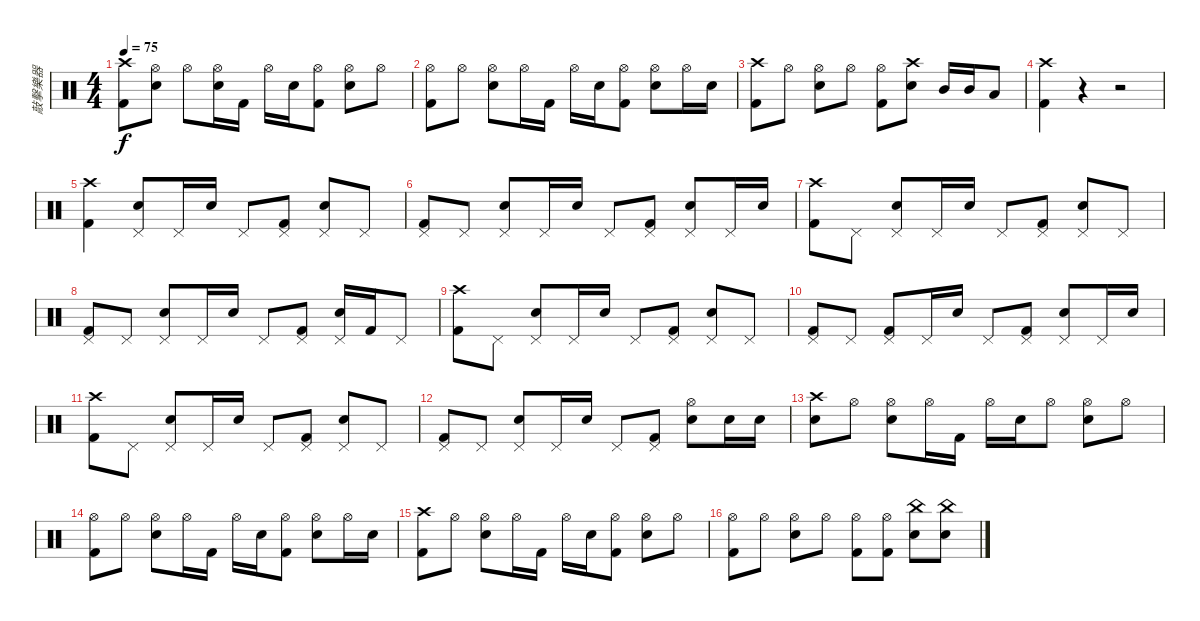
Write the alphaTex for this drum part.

\track ("敲擊樂器" "敲擊樂器") {instrument percussion}
\staff {score}
\articulation defaults
\ts (4 4)
\tempo 75
\clef neutral
\ks c
("Crash high (hit)" "Kick (hit) 2").8{dy f} ("Hi-Hat (open)" "Snare (hit) 2").8 "Hi-Hat (open)".8 ("Snare (hit) 2" "Hi-Hat (open)").16 "Kick (hit) 2".16 "Hi-Hat (open)".16 "Snare (hit) 2".16 ("Kick (hit) 2" "Hi-Hat (open)").8 ("Hi-Hat (open)" "Snare (hit) 2").8 "Hi-Hat (open)".8 |
("Hi-Hat (open)" "Kick (hit) 2").8 "Hi-Hat (open)".8 ("Hi-Hat (open)" "Snare (hit) 2").8 "Hi-Hat (open)".16 "Kick (hit) 2".16 "Hi-Hat (open)".16 "Snare (hit) 2".16 ("Hi-Hat (open)" "Kick (hit) 2").8 ("Hi-Hat (open)" "Snare (hit) 2").8 "Hi-Hat (open)".16 "Snare (hit) 2".16 |
("Crash high (hit)" "Kick (hit) 2").8 "Hi-Hat (open)".8 ("Hi-Hat (open)" "Snare (hit) 2").8 "Hi-Hat (open)".8 ("Hi-Hat (open)" "Kick (hit) 2").8 ("Snare (hit) 2" "Crash high (hit)").8 "Mid Tom (hit)".16 "Mid Tom (hit)".16 "Low Tom (hit)".8 |
("Crash high (hit)" "Kick (hit) 2").4 r.4 r.2 |
("Crash high (hit)" "Kick (hit) 2").4 ("Pedal Hi-Hat (hit)" "Snare (hit) 2").8 "Pedal Hi-Hat (hit)".16 "Snare (hit) 2".16 "Pedal Hi-Hat (hit)".8 ("Pedal Hi-Hat (hit)" "Kick (hit) 2").8 ("Pedal Hi-Hat (hit)" "Snare (hit) 2").8 "Pedal Hi-Hat (hit)".8 |
("Pedal Hi-Hat (hit)" "Kick (hit) 2").8 "Pedal Hi-Hat (hit)".8 ("Pedal Hi-Hat (hit)" "Snare (hit) 2").8 "Pedal Hi-Hat (hit)".16 "Snare (hit) 2".16 "Pedal Hi-Hat (hit)".8 ("Pedal Hi-Hat (hit)" "Kick (hit) 2").8 ("Pedal Hi-Hat (hit)" "Snare (hit) 2").8 "Pedal Hi-Hat (hit)".16 "Snare (hit) 2".16 |
("Crash high (hit)" "Kick (hit) 2").8 "Pedal Hi-Hat (hit)".8 ("Snare (hit) 2" "Pedal Hi-Hat (hit)").8 "Pedal Hi-Hat (hit)".16 "Snare (hit) 2".16 "Pedal Hi-Hat (hit)".8 ("Pedal Hi-Hat (hit)" "Kick (hit) 2").8 ("Snare (hit) 2" "Pedal Hi-Hat (hit)").8 "Pedal Hi-Hat (hit)".8 |
("Pedal Hi-Hat (hit)" "Kick (hit) 2").8 "Pedal Hi-Hat (hit)".8 ("Pedal Hi-Hat (hit)" "Snare (hit) 2").8 "Pedal Hi-Hat (hit)".16 "Snare (hit) 2".16 "Pedal Hi-Hat (hit)".8 ("Pedal Hi-Hat (hit)" "Kick (hit) 2").8 ("Snare (hit) 2" "Pedal Hi-Hat (hit)").16 "Kick (hit) 2".16 "Pedal Hi-Hat (hit)".8 |
("Kick (hit) 2" "Crash high (hit)").8 "Pedal Hi-Hat (hit)".8 ("Pedal Hi-Hat (hit)" "Snare (hit) 2").8 "Pedal Hi-Hat (hit)".16 "Snare (hit) 2".16 "Pedal Hi-Hat (hit)".8 ("Pedal Hi-Hat (hit)" "Kick (hit) 2").8 ("Pedal Hi-Hat (hit)" "Snare (hit) 2").8 "Pedal Hi-Hat (hit)".8 |
("Pedal Hi-Hat (hit)" "Kick (hit) 2").8 "Pedal Hi-Hat (hit)".8 ("Pedal Hi-Hat (hit)" "Kick (hit) 2").8 "Pedal Hi-Hat (hit)".16 "Snare (hit) 2".16 "Pedal Hi-Hat (hit)".8 ("Pedal Hi-Hat (hit)" "Kick (hit) 2").8 ("Pedal Hi-Hat (hit)" "Snare (hit) 2").8 "Pedal Hi-Hat (hit)".16 "Snare (hit) 2".16 |
("Crash high (hit)" "Kick (hit) 2").8 "Pedal Hi-Hat (hit)".8 ("Pedal Hi-Hat (hit)" "Snare (hit) 2").8 "Pedal Hi-Hat (hit)".16 "Snare (hit) 2".16 "Pedal Hi-Hat (hit)".8 ("Pedal Hi-Hat (hit)" "Kick (hit) 2").8 ("Pedal Hi-Hat (hit)" "Snare (hit) 2").8 "Pedal Hi-Hat (hit)".8 |
("Pedal Hi-Hat (hit)" "Kick (hit) 2").8 "Pedal Hi-Hat (hit)".8 ("Pedal Hi-Hat (hit)" "Snare (hit) 2").8 "Pedal Hi-Hat (hit)".16 "Snare (hit) 2".16 "Pedal Hi-Hat (hit)".8 ("Pedal Hi-Hat (hit)" "Kick (hit) 2").8 ("Snare (hit) 2" "Hi-Hat (open)").8 "Snare (hit) 2".16 "Snare (hit) 2".16 |
("Crash high (hit)" "Snare (hit) 2").8 "Hi-Hat (open)".8 ("Hi-Hat (open)" "Snare (hit) 2").8 "Hi-Hat (open)".16 "Kick (hit) 2".16 "Hi-Hat (open)".16 "Snare (hit) 2".16 "Hi-Hat (open)".8 ("Hi-Hat (open)" "Snare (hit) 2").8 "Hi-Hat (open)".8 |
("Hi-Hat (open)" "Kick (hit) 2").8 "Hi-Hat (open)".8 ("Hi-Hat (open)" "Snare (hit) 2").8 "Hi-Hat (open)".16 "Kick (hit) 2".16 "Hi-Hat (open)".16 "Snare (hit) 2".16 ("Hi-Hat (open)" "Kick (hit) 2").8 ("Hi-Hat (open)" "Snare (hit) 2").8 "Hi-Hat (open)".16 "Snare (hit) 2".16 |
("Crash high (hit)" "Kick (hit) 2").8 "Hi-Hat (open)".8 ("Hi-Hat (open)" "Snare (hit) 2").8 "Hi-Hat (open)".16 "Kick (hit) 2".16 "Hi-Hat (open)".16 "Snare (hit) 2".16 ("Hi-Hat (open)" "Kick (hit) 2").8 ("Hi-Hat (open)" "Snare (hit) 2").8 "Hi-Hat (open)".8 |
("Hi-Hat (open)" "Kick (hit) 2").8 "Hi-Hat (open)".8 ("Hi-Hat (open)" "Snare (hit) 2").8 "Hi-Hat (open)".8 ("Kick (hit) 2" "Hi-Hat (open)").8 ("Kick (hit) 2" "Hi-Hat (open)").8 ("China (hit)" "Snare (hit) 2").8 ("China (hit)" "Snare (hit) 2").8
